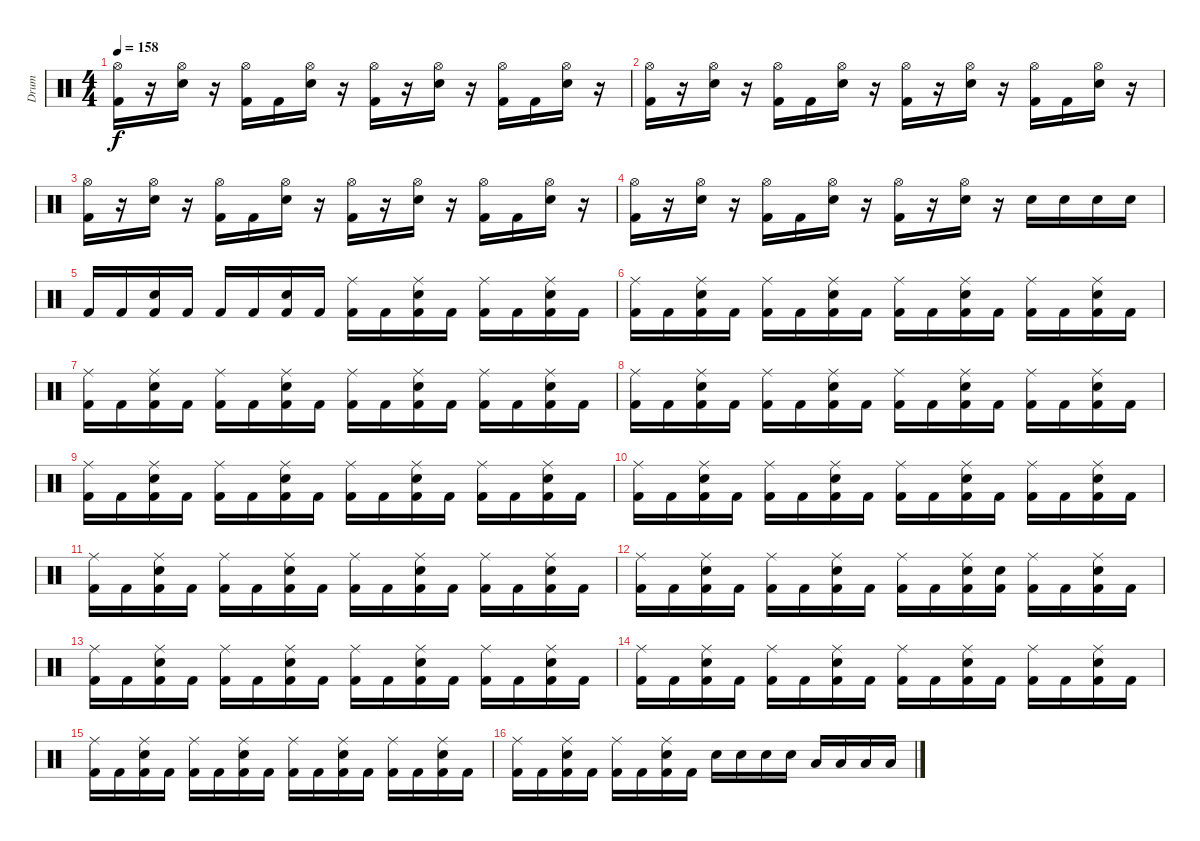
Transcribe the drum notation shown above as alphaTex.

\track ("Drum" "Drum") {instrument percussion}
\staff {score}
\articulation defaults
\ts (4 4)
\tempo 158
\clef neutral
\ks c
("Hi-Hat (open)" "Kick (hit) 2").16{dy f} r.16 ("Hi-Hat (open)" "Electric Snare (hit)").16 r.16 ("Hi-Hat (open)" "Kick (hit) 2").16 "Kick (hit) 2".16 ("Hi-Hat (open)" "Electric Snare (hit)").16 r.16 ("Hi-Hat (open)" "Kick (hit) 2").16 r.16 ("Hi-Hat (open)" "Electric Snare (hit)").16 r.16 ("Hi-Hat (open)" "Kick (hit) 2").16 "Kick (hit) 2".16 ("Hi-Hat (open)" "Electric Snare (hit)").16 r.16 |
("Hi-Hat (open)" "Kick (hit) 2").16 r.16 ("Hi-Hat (open)" "Electric Snare (hit)").16 r.16 ("Hi-Hat (open)" "Kick (hit) 2").16 "Kick (hit) 2".16 ("Hi-Hat (open)" "Electric Snare (hit)").16 r.16 ("Hi-Hat (open)" "Kick (hit) 2").16 r.16 ("Hi-Hat (open)" "Electric Snare (hit)").16 r.16 ("Hi-Hat (open)" "Kick (hit) 2").16 "Kick (hit) 2".16 ("Hi-Hat (open)" "Electric Snare (hit)").16 r.16 |
("Hi-Hat (open)" "Kick (hit) 2").16 r.16 ("Hi-Hat (open)" "Electric Snare (hit)").16 r.16 ("Hi-Hat (open)" "Kick (hit) 2").16 "Kick (hit) 2".16 ("Hi-Hat (open)" "Electric Snare (hit)").16 r.16 ("Hi-Hat (open)" "Kick (hit) 2").16 r.16 ("Hi-Hat (open)" "Electric Snare (hit)").16 r.16 ("Hi-Hat (open)" "Kick (hit) 2").16 "Kick (hit) 2".16 ("Hi-Hat (open)" "Electric Snare (hit)").16 r.16 |
("Hi-Hat (open)" "Kick (hit) 2").16 r.16 ("Hi-Hat (open)" "Electric Snare (hit)").16 r.16 ("Hi-Hat (open)" "Kick (hit) 2").16 "Kick (hit) 2".16 ("Hi-Hat (open)" "Electric Snare (hit)").16 r.16 ("Hi-Hat (open)" "Kick (hit) 2").16 r.16 ("Hi-Hat (open)" "Electric Snare (hit)").16 r.16 "Electric Snare (hit)".16 "Electric Snare (hit)".16 "Electric Snare (hit)".16 "Electric Snare (hit)".16 |
"Kick (hit) 2".16 "Kick (hit) 2".16 ("Electric Snare (hit)" "Kick (hit) 2").16 "Kick (hit) 2".16 "Kick (hit) 2".16 "Kick (hit) 2".16 ("Electric Snare (hit)" "Kick (hit) 2").16 "Kick (hit) 2".16 ("Kick (hit) 2" "Ride (middle)").16 "Kick (hit) 2".16 ("Electric Snare (hit)" "Kick (hit) 2" "Ride (middle)").16 "Kick (hit) 2".16 ("Kick (hit) 2" "Ride (middle)").16 "Kick (hit) 2".16 ("Electric Snare (hit)" "Kick (hit) 2" "Ride (middle)").16 "Kick (hit) 2".16 |
("Kick (hit) 2" "Ride (middle)").16 "Kick (hit) 2".16 ("Electric Snare (hit)" "Kick (hit) 2" "Ride (middle)").16 "Kick (hit) 2".16 ("Kick (hit) 2" "Ride (middle)").16 "Kick (hit) 2".16 ("Electric Snare (hit)" "Kick (hit) 2" "Ride (middle)").16 "Kick (hit) 2".16 ("Kick (hit) 2" "Ride (middle)").16 "Kick (hit) 2".16 ("Electric Snare (hit)" "Kick (hit) 2" "Ride (middle)").16 "Kick (hit) 2".16 ("Kick (hit) 2" "Ride (middle)").16 "Kick (hit) 2".16 ("Electric Snare (hit)" "Kick (hit) 2" "Ride (middle)").16 "Kick (hit) 2".16 |
("Kick (hit) 2" "Ride (middle)").16 "Kick (hit) 2".16 ("Electric Snare (hit)" "Kick (hit) 2" "Ride (middle)").16 "Kick (hit) 2".16 ("Kick (hit) 2" "Ride (middle)").16 "Kick (hit) 2".16 ("Electric Snare (hit)" "Kick (hit) 2" "Ride (middle)").16 "Kick (hit) 2".16 ("Kick (hit) 2" "Ride (middle)").16 "Kick (hit) 2".16 ("Electric Snare (hit)" "Kick (hit) 2" "Ride (middle)").16 "Kick (hit) 2".16 ("Kick (hit) 2" "Ride (middle)").16 "Kick (hit) 2".16 ("Electric Snare (hit)" "Kick (hit) 2" "Ride (middle)").16 "Kick (hit) 2".16 |
("Kick (hit) 2" "Ride (middle)").16 "Kick (hit) 2".16 ("Electric Snare (hit)" "Kick (hit) 2" "Ride (middle)").16 "Kick (hit) 2".16 ("Kick (hit) 2" "Ride (middle)").16 "Kick (hit) 2".16 ("Electric Snare (hit)" "Kick (hit) 2" "Ride (middle)").16 "Kick (hit) 2".16 ("Kick (hit) 2" "Ride (middle)").16 "Kick (hit) 2".16 ("Electric Snare (hit)" "Kick (hit) 2" "Ride (middle)").16 "Kick (hit) 2".16 ("Kick (hit) 2" "Ride (middle)").16 "Kick (hit) 2".16 ("Electric Snare (hit)" "Kick (hit) 2" "Ride (middle)").16 "Kick (hit) 2".16 |
("Kick (hit) 2" "Ride (middle)").16 "Kick (hit) 2".16 ("Electric Snare (hit)" "Kick (hit) 2" "Ride (middle)").16 "Kick (hit) 2".16 ("Kick (hit) 2" "Ride (middle)").16 "Kick (hit) 2".16 ("Electric Snare (hit)" "Kick (hit) 2" "Ride (middle)").16 "Kick (hit) 2".16 ("Kick (hit) 2" "Ride (middle)").16 "Kick (hit) 2".16 ("Electric Snare (hit)" "Kick (hit) 2" "Ride (middle)").16 "Kick (hit) 2".16 ("Kick (hit) 2" "Ride (middle)").16 "Kick (hit) 2".16 ("Electric Snare (hit)" "Kick (hit) 2" "Ride (middle)").16 "Kick (hit) 2".16 |
("Kick (hit) 2" "Ride (middle)").16 "Kick (hit) 2".16 ("Electric Snare (hit)" "Kick (hit) 2" "Ride (middle)").16 "Kick (hit) 2".16 ("Kick (hit) 2" "Ride (middle)").16 "Kick (hit) 2".16 ("Electric Snare (hit)" "Kick (hit) 2" "Ride (middle)").16 "Kick (hit) 2".16 ("Kick (hit) 2" "Ride (middle)").16 "Kick (hit) 2".16 ("Electric Snare (hit)" "Kick (hit) 2" "Ride (middle)").16 "Kick (hit) 2".16 ("Kick (hit) 2" "Ride (middle)").16 "Kick (hit) 2".16 ("Electric Snare (hit)" "Kick (hit) 2" "Ride (middle)").16 "Kick (hit) 2".16 |
("Kick (hit) 2" "Ride (middle)").16 "Kick (hit) 2".16 ("Electric Snare (hit)" "Kick (hit) 2" "Ride (middle)").16 "Kick (hit) 2".16 ("Kick (hit) 2" "Ride (middle)").16 "Kick (hit) 2".16 ("Electric Snare (hit)" "Kick (hit) 2" "Ride (middle)").16 "Kick (hit) 2".16 ("Kick (hit) 2" "Ride (middle)").16 "Kick (hit) 2".16 ("Electric Snare (hit)" "Kick (hit) 2" "Ride (middle)").16 "Kick (hit) 2".16 ("Kick (hit) 2" "Ride (middle)").16 "Kick (hit) 2".16 ("Electric Snare (hit)" "Kick (hit) 2" "Ride (middle)").16 "Kick (hit) 2".16 |
("Kick (hit) 2" "Ride (middle)").16 "Kick (hit) 2".16 ("Electric Snare (hit)" "Kick (hit) 2" "Ride (middle)").16 "Kick (hit) 2".16 ("Kick (hit) 2" "Ride (middle)").16 "Kick (hit) 2".16 ("Electric Snare (hit)" "Kick (hit) 2" "Ride (middle)").16 "Kick (hit) 2".16 ("Kick (hit) 2" "Ride (middle)").16 "Kick (hit) 2".16 ("Electric Snare (hit)" "Kick (hit) 2" "Ride (middle)").16 ("Electric Snare (hit)" "Kick (hit) 2").16 ("Kick (hit) 2" "Ride (middle)").16 "Kick (hit) 2".16 ("Electric Snare (hit)" "Kick (hit) 2" "Ride (middle)").16 "Kick (hit) 2".16 |
("Kick (hit) 2" "Ride (middle)").16 "Kick (hit) 2".16 ("Electric Snare (hit)" "Kick (hit) 2" "Ride (middle)").16 "Kick (hit) 2".16 ("Kick (hit) 2" "Ride (middle)").16 "Kick (hit) 2".16 ("Electric Snare (hit)" "Kick (hit) 2" "Ride (middle)").16 "Kick (hit) 2".16 ("Kick (hit) 2" "Ride (middle)").16 "Kick (hit) 2".16 ("Electric Snare (hit)" "Kick (hit) 2" "Ride (middle)").16 "Kick (hit) 2".16 ("Kick (hit) 2" "Ride (middle)").16 "Kick (hit) 2".16 ("Electric Snare (hit)" "Kick (hit) 2" "Ride (middle)").16 "Kick (hit) 2".16 |
("Kick (hit) 2" "Ride (middle)").16 "Kick (hit) 2".16 ("Electric Snare (hit)" "Kick (hit) 2" "Ride (middle)").16 "Kick (hit) 2".16 ("Kick (hit) 2" "Ride (middle)").16 "Kick (hit) 2".16 ("Electric Snare (hit)" "Kick (hit) 2" "Ride (middle)").16 "Kick (hit) 2".16 ("Kick (hit) 2" "Ride (middle)").16 "Kick (hit) 2".16 ("Electric Snare (hit)" "Kick (hit) 2" "Ride (middle)").16 "Kick (hit) 2".16 ("Kick (hit) 2" "Ride (middle)").16 "Kick (hit) 2".16 ("Electric Snare (hit)" "Kick (hit) 2" "Ride (middle)").16 "Kick (hit) 2".16 |
("Kick (hit) 2" "Ride (middle)").16 "Kick (hit) 2".16 ("Electric Snare (hit)" "Kick (hit) 2" "Ride (middle)").16 "Kick (hit) 2".16 ("Kick (hit) 2" "Ride (middle)").16 "Kick (hit) 2".16 ("Electric Snare (hit)" "Kick (hit) 2" "Ride (middle)").16 "Kick (hit) 2".16 ("Kick (hit) 2" "Ride (middle)").16 "Kick (hit) 2".16 ("Electric Snare (hit)" "Kick (hit) 2" "Ride (middle)").16 "Kick (hit) 2".16 ("Kick (hit) 2" "Ride (middle)").16 "Kick (hit) 2".16 ("Electric Snare (hit)" "Kick (hit) 2" "Ride (middle)").16 "Kick (hit) 2".16 |
("Kick (hit) 2" "Ride (middle)").16 "Kick (hit) 2".16 ("Electric Snare (hit)" "Kick (hit) 2" "Ride (middle)").16 "Kick (hit) 2".16 ("Kick (hit) 2" "Ride (middle)").16 "Kick (hit) 2".16 ("Electric Snare (hit)" "Kick (hit) 2" "Ride (middle)").16 "Kick (hit) 2".16 "Electric Snare (hit)".16 "Electric Snare (hit)".16 "Electric Snare (hit)".16 "Electric Snare (hit)".16 "Low Floor Tom (hit)".16 "Low Floor Tom (hit)".16 "Low Floor Tom (hit)".16 "Low Floor Tom (hit)".16
